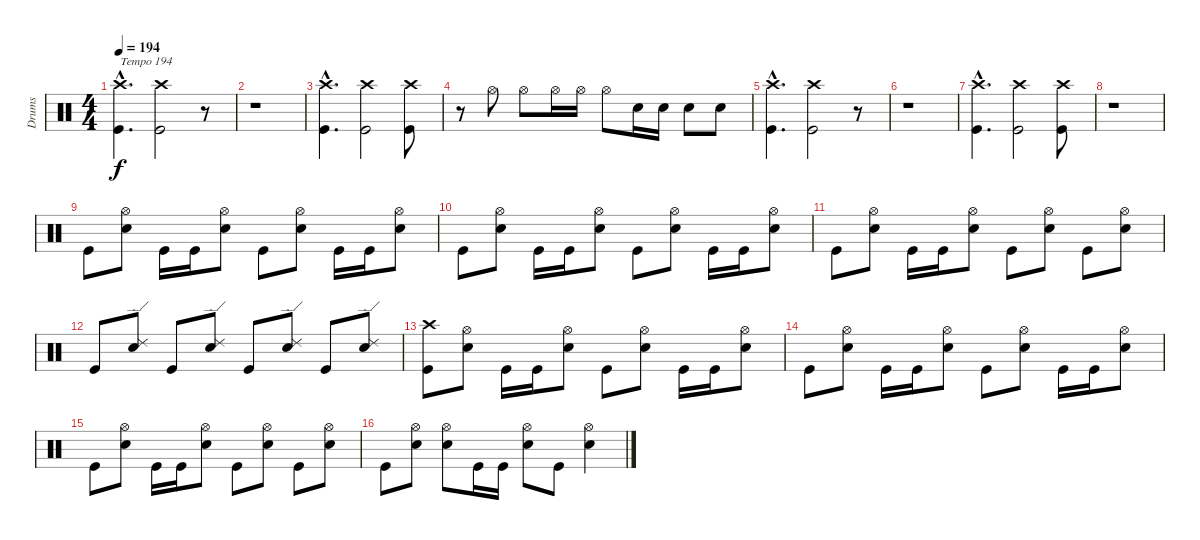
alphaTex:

\track ("Drums" "Drums") {instrument percussion}
\staff {score}
\articulation defaults
\ts (4 4)
\tempo 194
\clef neutral
\ks c
("Crash high (hit)"{hac} "Kick (hit)"{hac}).4{d txt "Tempo 194" dy f} ("Crash high (hit)" "Kick (hit)").2 r.8 |
r.1 |
("Crash high (hit)"{hac} "Kick (hit)"{hac}).4{d} ("Crash high (hit)" "Kick (hit)").2 ("Crash high (hit)" "Kick (hit)").8 |
r.8 "Hi-Hat (open)".8 "Hi-Hat (open)".8 "Hi-Hat (open)".16 "Hi-Hat (open)".16 "Hi-Hat (open)".8 "Electric Snare (hit)".16 "Electric Snare (hit)".16 "Electric Snare (hit)".8 "Electric Snare (hit)".8 |
("Crash high (hit)"{hac} "Kick (hit)"{hac}).4{d} ("Crash high (hit)" "Kick (hit)").2 r.8 |
r.1 |
("Crash high (hit)"{hac} "Kick (hit)"{hac}).4{d} ("Crash high (hit)" "Kick (hit)").2 ("Crash high (hit)" "Kick (hit)").8 |
r.1 |
"Kick (hit)".8 ("Hi-Hat (open)" "Electric Snare (hit)").8 "Kick (hit)".16 "Kick (hit)".16 ("Hi-Hat (open)" "Electric Snare (hit)").8 "Kick (hit)".8 ("Hi-Hat (open)" "Electric Snare (hit)").8 "Kick (hit)".16 "Kick (hit)".16 ("Hi-Hat (open)" "Electric Snare (hit)").8 |
"Kick (hit)".8 ("Hi-Hat (open)" "Electric Snare (hit)").8 "Kick (hit)".16 "Kick (hit)".16 ("Hi-Hat (open)" "Electric Snare (hit)").8 "Kick (hit)".8 ("Hi-Hat (open)" "Electric Snare (hit)").8 "Kick (hit)".16 "Kick (hit)".16 ("Hi-Hat (open)" "Electric Snare (hit)").8 |
"Kick (hit)".8 ("Hi-Hat (open)" "Electric Snare (hit)").8 "Kick (hit)".16 "Kick (hit)".16 ("Hi-Hat (open)" "Electric Snare (hit)").8 "Kick (hit)".8 ("Hi-Hat (open)" "Electric Snare (hit)").8 "Kick (hit)".8 ("Hi-Hat (open)" "Electric Snare (hit)").8 |
"Kick (hit)".8 ("Ride (edge) 2" "Electric Snare (hit)").8 "Kick (hit)".8 ("Ride (edge) 2" "Electric Snare (hit)").8 "Kick (hit)".8 ("Ride (edge) 2" "Electric Snare (hit)").8 "Kick (hit)".8 ("Ride (edge) 2" "Electric Snare (hit)").8 |
("Crash high (hit)" "Kick (hit)").8 ("Hi-Hat (open)" "Electric Snare (hit)").8 "Kick (hit)".16 "Kick (hit)".16 ("Hi-Hat (open)" "Electric Snare (hit)").8 "Kick (hit)".8 ("Hi-Hat (open)" "Electric Snare (hit)").8 "Kick (hit)".16 "Kick (hit)".16 ("Hi-Hat (open)" "Electric Snare (hit)").8 |
"Kick (hit)".8 ("Hi-Hat (open)" "Electric Snare (hit)").8 "Kick (hit)".16 "Kick (hit)".16 ("Hi-Hat (open)" "Electric Snare (hit)").8 "Kick (hit)".8 ("Hi-Hat (open)" "Electric Snare (hit)").8 "Kick (hit)".16 "Kick (hit)".16 ("Hi-Hat (open)" "Electric Snare (hit)").8 |
"Kick (hit)".8 ("Hi-Hat (open)" "Electric Snare (hit)").8 "Kick (hit)".16 "Kick (hit)".16 ("Hi-Hat (open)" "Electric Snare (hit)").8 "Kick (hit)".8 ("Hi-Hat (open)" "Electric Snare (hit)").8 "Kick (hit)".8 ("Hi-Hat (open)" "Electric Snare (hit)").8 |
"Kick (hit)".8 ("Hi-Hat (open)" "Electric Snare (hit)").8 ("Hi-Hat (open)" "Electric Snare (hit)").8 "Kick (hit)".16 "Kick (hit)".16 ("Hi-Hat (open)" "Electric Snare (hit)").8 "Kick (hit)".8 ("Hi-Hat (open)" "Electric Snare (hit)").4
